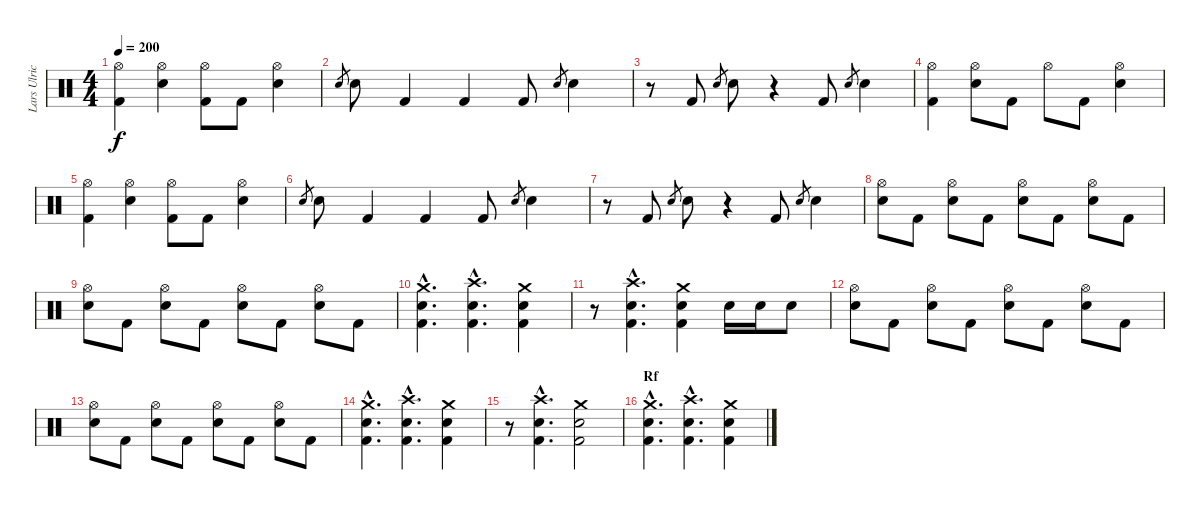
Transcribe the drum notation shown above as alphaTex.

\track ("Lars Ulrich" "Lars Ulric") {instrument percussion}
\staff {score}
\articulation defaults
\ts (4 4)
\tempo 200
\clef neutral
\ks c
("Hi-Hat (open)" "Kick (hit) 2").4{dy f} ("Hi-Hat (open)" "Electric Snare (hit)").4 ("Hi-Hat (open)" "Kick (hit) 2").8 "Kick (hit) 2".8 ("Hi-Hat (open)" "Electric Snare (hit)").4 |
"Electric Snare (hit)".8{gr} "Electric Snare (hit)".8 "Kick (hit) 2".4 "Kick (hit) 2".4 "Kick (hit) 2".8 "Electric Snare (hit)".8{gr} "Electric Snare (hit)".4 |
r.8 "Kick (hit) 2".8 "Electric Snare (hit)".8{gr} "Electric Snare (hit)".8 r.4 "Kick (hit) 2".8 "Electric Snare (hit)".8{gr} "Electric Snare (hit)".4 |
("Hi-Hat (open)" "Kick (hit) 2").4 ("Hi-Hat (open)" "Electric Snare (hit)").8 "Kick (hit) 2".8 "Hi-Hat (open)".8 "Kick (hit) 2".8 ("Hi-Hat (open)" "Electric Snare (hit)").4 |
("Hi-Hat (open)" "Kick (hit) 2").4 ("Hi-Hat (open)" "Electric Snare (hit)").4 ("Hi-Hat (open)" "Kick (hit) 2").8 "Kick (hit) 2".8 ("Hi-Hat (open)" "Electric Snare (hit)").4 |
"Electric Snare (hit)".8{gr} "Electric Snare (hit)".8 "Kick (hit) 2".4 "Kick (hit) 2".4 "Kick (hit) 2".8 "Electric Snare (hit)".8{gr} "Electric Snare (hit)".4 |
r.8 "Kick (hit) 2".8 "Electric Snare (hit)".8{gr} "Electric Snare (hit)".8 r.4 "Kick (hit) 2".8 "Electric Snare (hit)".8{gr} "Electric Snare (hit)".4 |
("Hi-Hat (open)" "Electric Snare (hit)").8 "Kick (hit) 2".8 ("Hi-Hat (open)" "Electric Snare (hit)").8 "Kick (hit) 2".8 ("Hi-Hat (open)" "Electric Snare (hit)").8 "Kick (hit) 2".8 ("Hi-Hat (open)" "Electric Snare (hit)").8 "Kick (hit) 2".8 |
("Hi-Hat (open)" "Electric Snare (hit)").8 "Kick (hit) 2".8 ("Hi-Hat (open)" "Electric Snare (hit)").8 "Kick (hit) 2".8 ("Hi-Hat (open)" "Electric Snare (hit)").8 "Kick (hit) 2".8 ("Hi-Hat (open)" "Electric Snare (hit)").8 "Kick (hit) 2".8 |
("Crash medium (hit)"{hac} "Electric Snare (hit)"{hac} "Kick (hit) 2"{hac}).4{d} ("Crash high (hit)"{hac} "Electric Snare (hit)"{hac} "Kick (hit) 2"{hac}).4{d} ("Crash medium (hit)" "Electric Snare (hit)" "Kick (hit) 2").4 |
r.8 ("Crash high (hit)"{hac} "Electric Snare (hit)"{hac} "Kick (hit) 2"{hac}).4{d} ("Crash medium (hit)" "Electric Snare (hit)" "Kick (hit) 2").4 "Electric Snare (hit)".16 "Electric Snare (hit)".16 "Electric Snare (hit)".8 |
("Hi-Hat (open)" "Electric Snare (hit)").8 "Kick (hit) 2".8 ("Hi-Hat (open)" "Electric Snare (hit)").8 "Kick (hit) 2".8 ("Hi-Hat (open)" "Electric Snare (hit)").8 "Kick (hit) 2".8 ("Hi-Hat (open)" "Electric Snare (hit)").8 "Kick (hit) 2".8 |
("Hi-Hat (open)" "Electric Snare (hit)").8 "Kick (hit) 2".8 ("Hi-Hat (open)" "Electric Snare (hit)").8 "Kick (hit) 2".8 ("Hi-Hat (open)" "Electric Snare (hit)").8 "Kick (hit) 2".8 ("Hi-Hat (open)" "Electric Snare (hit)").8 "Kick (hit) 2".8 |
("Crash medium (hit)"{hac} "Electric Snare (hit)"{hac} "Kick (hit) 2"{hac}).4{d} ("Crash high (hit)"{hac} "Electric Snare (hit)"{hac} "Kick (hit) 2"{hac}).4{d} ("Crash medium (hit)" "Electric Snare (hit)" "Kick (hit) 2").4 |
r.8 ("Crash high (hit)"{hac} "Electric Snare (hit)"{hac} "Kick (hit) 2"{hac}).4{d} ("Crash medium (hit)" "Electric Snare (hit)" "Kick (hit) 2").2 |
\section ("" "Rf")
("Crash medium (hit)"{hac} "Electric Snare (hit)"{hac} "Kick (hit) 2"{hac}).4{d} ("Crash high (hit)"{hac} "Electric Snare (hit)"{hac} "Kick (hit) 2"{hac}).4{d} ("Crash medium (hit)" "Electric Snare (hit)" "Kick (hit) 2").4
